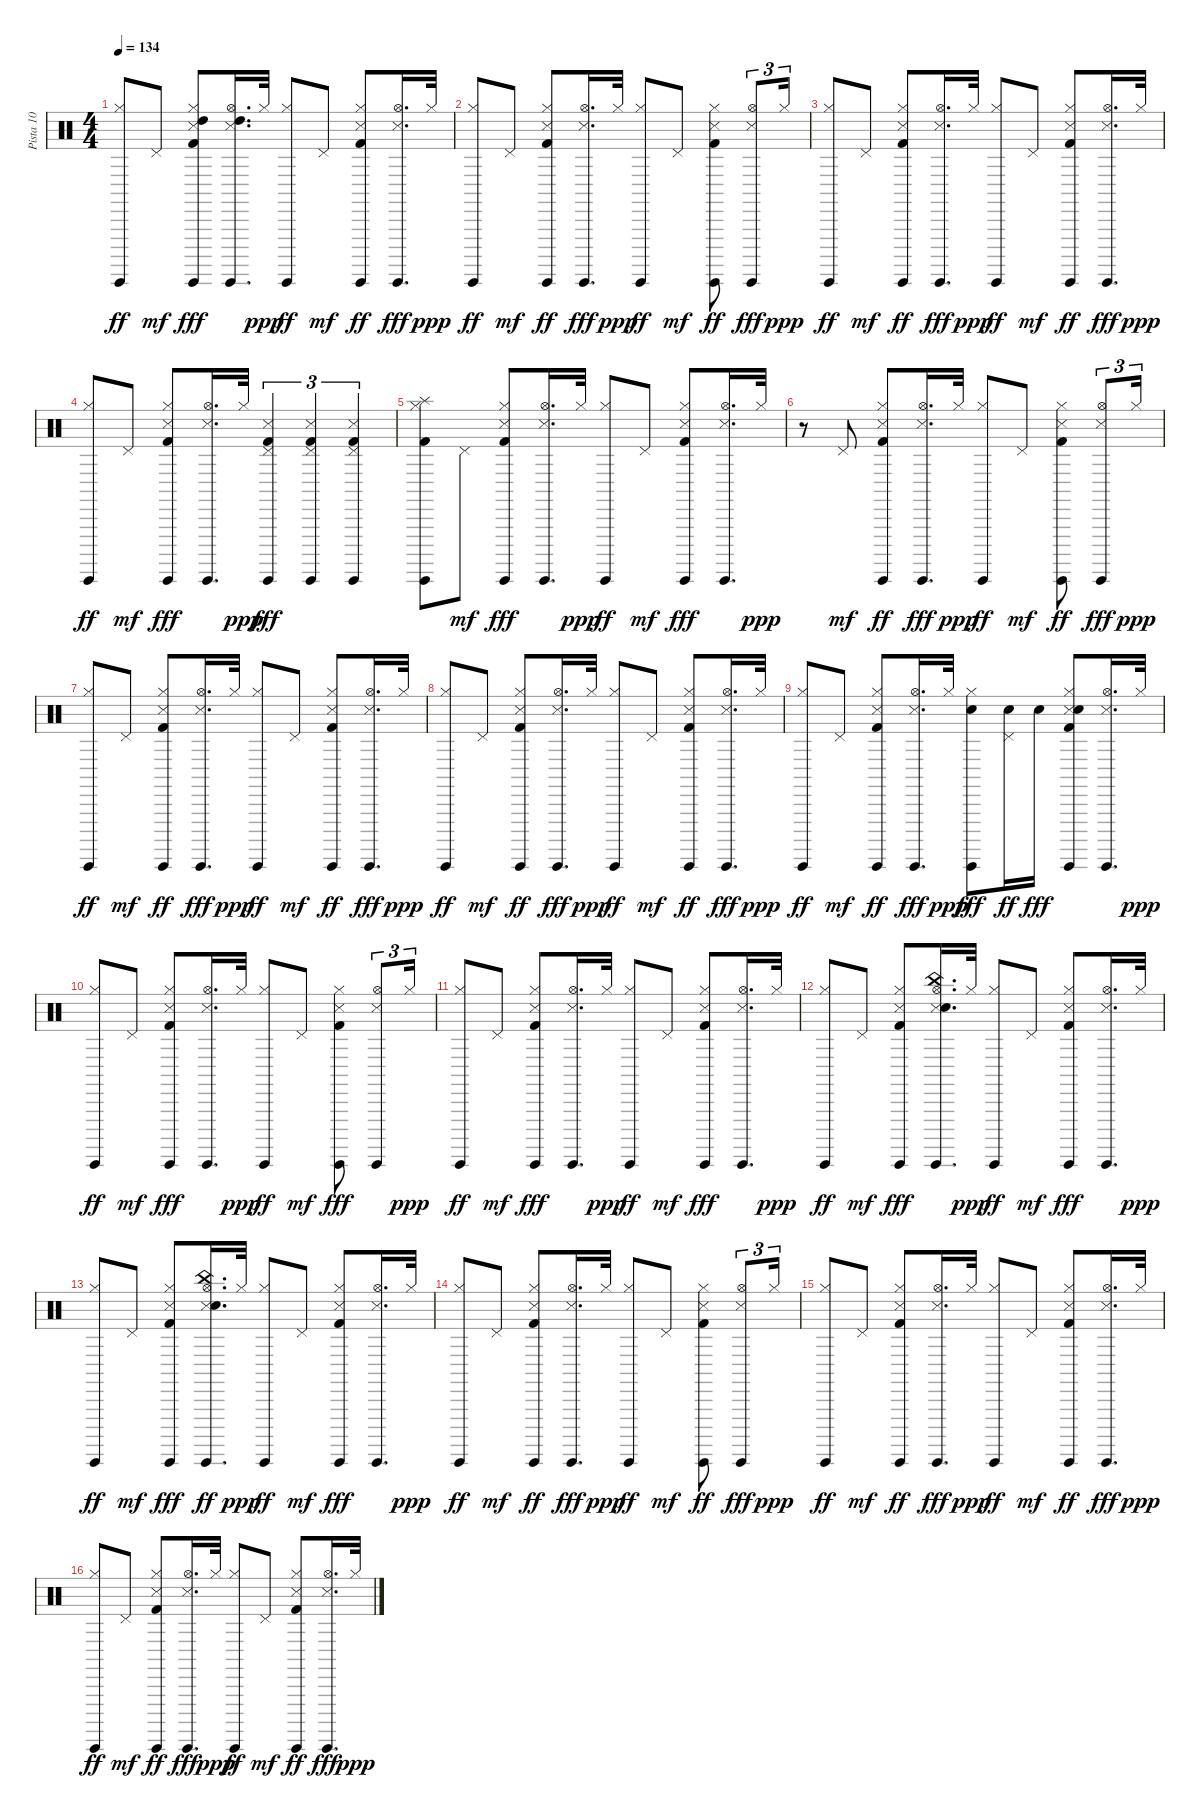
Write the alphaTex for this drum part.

\track ("Pista 10" "Pista 10") {instrument percussion}
\staff {score}
\articulation defaults
\ts (4 4)
\tempo 134
\clef neutral
\ks c
("Hi-Hat (closed)" "Guiro (hit)").8{dy ff} "Pedal Hi-Hat (hit)".8{dy mf} ("Hi-Hat (closed)" "Guiro (hit)" "Snare (side stick) 3" "Kick (hit) 2" "High Tom (hit)").8{dy fff} ("Hi-Hat (open)" "Guiro (hit)" "Snare (side stick) 3" "High Tom (hit)").16{d} "Hi-Hat (closed)".32{dy ppp} ("Hi-Hat (closed)" "Guiro (hit)").8{dy ff} "Pedal Hi-Hat (hit)".8{dy mf} ("Hi-Hat (closed)" "Guiro (hit)" "Snare (side stick) 3" "Kick (hit) 2").8{dy ff} ("Hi-Hat (open)" "Guiro (hit)" "Snare (side stick) 3").16{d dy fff} "Hi-Hat (closed)".32{dy ppp} |
("Guiro (hit)" "Hi-Hat (closed)").8{dy ff} "Pedal Hi-Hat (hit)".8{dy mf} ("Guiro (hit)" "Hi-Hat (closed)" "Snare (side stick) 3" "Kick (hit) 2").8{dy ff} ("Guiro (hit)" "Hi-Hat (open)" "Snare (side stick) 3").16{d dy fff} "Hi-Hat (closed)".32{dy ppp} ("Guiro (hit)" "Hi-Hat (closed)").8{dy ff} "Pedal Hi-Hat (hit)".8{dy mf} ("Guiro (hit)" "Hi-Hat (closed)" "Snare (side stick) 3" "Kick (hit) 2").8{dy ff} ("Guiro (hit)" "Hi-Hat (open)" "Snare (side stick) 3").8{tu (3 2) dy fff} "Hi-Hat (closed)".16{tu (3 2) dy ppp} |
("Guiro (hit)" "Hi-Hat (closed)").8{dy ff} "Pedal Hi-Hat (hit)".8{dy mf} ("Guiro (hit)" "Hi-Hat (closed)" "Snare (side stick) 3" "Kick (hit) 2").8{dy ff} ("Guiro (hit)" "Hi-Hat (open)" "Snare (side stick) 3").16{d dy fff} "Hi-Hat (closed)".32{dy ppp} ("Guiro (hit)" "Hi-Hat (closed)").8{dy ff} "Pedal Hi-Hat (hit)".8{dy mf} ("Guiro (hit)" "Hi-Hat (closed)" "Snare (side stick) 3" "Kick (hit) 2").8{dy ff} ("Guiro (hit)" "Hi-Hat (open)" "Snare (side stick) 3").16{d dy fff} "Hi-Hat (closed)".32{dy ppp} |
("Guiro (hit)" "Hi-Hat (closed)").8{dy ff} "Pedal Hi-Hat (hit)".8{dy mf} ("Guiro (hit)" "Hi-Hat (closed)" "Kick (hit) 2" "Snare (side stick) 3").8{dy fff} ("Guiro (hit)" "Hi-Hat (open)" "Snare (side stick) 3").16{d} "Hi-Hat (closed)".32{dy ppp} ("Pedal Hi-Hat (hit)" "Guiro (hit)" "Snare (side stick) 3" "Kick (hit) 2").4{tu (3 2) dy fff} ("Pedal Hi-Hat (hit)" "Guiro (hit)" "Snare (side stick) 3" "Kick (hit) 2").4{tu (3 2)} ("Pedal Hi-Hat (hit)" "Guiro (hit)" "Snare (side stick) 3" "Kick (hit) 2").4{tu (3 2)} |
("Guiro (hit)" "Hi-Hat (closed)" "Splash (hit)" "Kick (hit) 2").8 "Pedal Hi-Hat (hit)".8{dy mf} ("Guiro (hit)" "Hi-Hat (closed)" "Kick (hit) 2" "Snare (side stick) 3").8{dy fff} ("Guiro (hit)" "Hi-Hat (open)" "Snare (side stick) 3").16{d} "Hi-Hat (closed)".32{dy ppp} ("Guiro (hit)" "Hi-Hat (closed)").8{dy ff} "Pedal Hi-Hat (hit)".8{dy mf} ("Guiro (hit)" "Hi-Hat (closed)" "Kick (hit) 2" "Snare (side stick) 3").8{dy fff} ("Guiro (hit)" "Hi-Hat (open)" "Snare (side stick) 3").16{d} "Hi-Hat (closed)".32{dy ppp} |
r.8 "Pedal Hi-Hat (hit)".8{dy mf} ("Hi-Hat (closed)" "Guiro (hit)" "Snare (side stick) 3" "Kick (hit) 2").8{dy ff} ("Hi-Hat (open)" "Guiro (hit)" "Snare (side stick) 3").16{d dy fff} "Hi-Hat (closed)".32{dy ppp} ("Hi-Hat (closed)" "Guiro (hit)").8{dy ff} "Pedal Hi-Hat (hit)".8{dy mf} ("Hi-Hat (closed)" "Guiro (hit)" "Snare (side stick) 3" "Kick (hit) 2").8{dy ff} ("Hi-Hat (open)" "Guiro (hit)" "Snare (side stick) 3").8{tu (3 2) dy fff} "Hi-Hat (closed)".16{tu (3 2) dy ppp} |
("Hi-Hat (closed)" "Guiro (hit)").8{dy ff} "Pedal Hi-Hat (hit)".8{dy mf} ("Hi-Hat (closed)" "Guiro (hit)" "Snare (side stick) 3" "Kick (hit) 2").8{dy ff} ("Hi-Hat (open)" "Guiro (hit)" "Snare (side stick) 3").16{d dy fff} "Hi-Hat (closed)".32{dy ppp} ("Hi-Hat (closed)" "Guiro (hit)").8{dy ff} "Pedal Hi-Hat (hit)".8{dy mf} ("Hi-Hat (closed)" "Guiro (hit)" "Snare (side stick) 3" "Kick (hit) 2").8{dy ff} ("Hi-Hat (open)" "Guiro (hit)" "Snare (side stick) 3").16{d dy fff} "Hi-Hat (closed)".32{dy ppp} |
("Hi-Hat (closed)" "Guiro (hit)").8{dy ff} "Pedal Hi-Hat (hit)".8{dy mf} ("Hi-Hat (closed)" "Guiro (hit)" "Snare (side stick) 3" "Kick (hit) 2").8{dy ff} ("Hi-Hat (open)" "Guiro (hit)" "Snare (side stick) 3").16{d dy fff} "Hi-Hat (closed)".32{dy ppp} ("Hi-Hat (closed)" "Guiro (hit)").8{dy ff} "Pedal Hi-Hat (hit)".8{dy mf} ("Hi-Hat (closed)" "Guiro (hit)" "Snare (side stick) 3" "Kick (hit) 2").8{dy ff} ("Hi-Hat (open)" "Guiro (hit)" "Snare (side stick) 3").16{d dy fff} "Hi-Hat (closed)".32{dy ppp} |
("Hi-Hat (closed)" "Guiro (hit)").8{dy ff} "Pedal Hi-Hat (hit)".8{dy mf} ("Hi-Hat (closed)" "Guiro (hit)" "Snare (side stick) 3" "Kick (hit) 2").8{dy ff} ("Hi-Hat (open)" "Guiro (hit)" "Snare (side stick) 3").16{d dy fff} "Hi-Hat (closed)".32{dy ppp} ("Hi-Hat (closed)" "Guiro (hit)" "Snare (hit) 2").8{dy fff} ("Pedal Hi-Hat (hit)" "Electric Snare (hit)").16{dy ff} "Electric Snare (hit)".16{dy fff} ("Hi-Hat (closed)" "Guiro (hit)" "Snare (side stick) 3" "Kick (hit) 2" "Snare (hit) 2").8 ("Hi-Hat (open)" "Guiro (hit)" "Snare (side stick) 3").16{d} "Hi-Hat (closed)".32{dy ppp} |
("Hi-Hat (closed)" "Guiro (hit)").8{dy ff} "Pedal Hi-Hat (hit)".8{dy mf} ("Hi-Hat (closed)" "Guiro (hit)" "Kick (hit) 2" "Snare (side stick) 3").8{dy fff} ("Hi-Hat (open)" "Guiro (hit)" "Snare (side stick) 3").16{d} "Hi-Hat (closed)".32{dy ppp} ("Hi-Hat (closed)" "Guiro (hit)").8{dy ff} "Pedal Hi-Hat (hit)".8{dy mf} ("Hi-Hat (closed)" "Guiro (hit)" "Kick (hit) 2" "Snare (side stick) 3").8{dy fff} ("Hi-Hat (open)" "Guiro (hit)" "Snare (side stick) 3").8{tu (3 2)} "Hi-Hat (closed)".16{tu (3 2) dy ppp} |
("Hi-Hat (closed)" "Guiro (hit)").8{dy ff} "Pedal Hi-Hat (hit)".8{dy mf} ("Hi-Hat (closed)" "Guiro (hit)" "Kick (hit) 2" "Snare (side stick) 3").8{dy fff} ("Hi-Hat (open)" "Guiro (hit)" "Snare (side stick) 3").16{d} "Hi-Hat (closed)".32{dy ppp} ("Hi-Hat (closed)" "Guiro (hit)").8{dy ff} "Pedal Hi-Hat (hit)".8{dy mf} ("Hi-Hat (closed)" "Guiro (hit)" "Kick (hit) 2" "Snare (side stick) 3").8{dy fff} ("Hi-Hat (open)" "Guiro (hit)" "Snare (side stick) 3").16{d} "Hi-Hat (closed)".32{dy ppp} |
("Hi-Hat (closed)" "Guiro (hit)").8{dy ff} "Pedal Hi-Hat (hit)".8{dy mf} ("Hi-Hat (closed)" "Guiro (hit)" "Kick (hit) 2" "Snare (side stick) 3").8{dy fff} ("Hi-Hat (open)" "Guiro (hit)" "Snare (side stick) 3" "Electric Snare (hit)" "China (hit)").16{d} "Hi-Hat (closed)".32{dy ppp} ("Hi-Hat (closed)" "Guiro (hit)").8{dy ff} "Pedal Hi-Hat (hit)".8{dy mf} ("Hi-Hat (closed)" "Guiro (hit)" "Kick (hit) 2" "Snare (side stick) 3").8{dy fff} ("Hi-Hat (open)" "Guiro (hit)" "Snare (side stick) 3").16{d} "Hi-Hat (closed)".32{dy ppp} |
("Hi-Hat (closed)" "Guiro (hit)").8{dy ff} "Pedal Hi-Hat (hit)".8{dy mf} ("Hi-Hat (closed)" "Guiro (hit)" "Kick (hit) 2" "Snare (side stick) 3").8{dy fff} ("Hi-Hat (open)" "Guiro (hit)" "Snare (side stick) 3" "China (hit)" "Electric Snare (hit)").16{d dy ff} "Hi-Hat (closed)".32{dy ppp} ("Hi-Hat (closed)" "Guiro (hit)").8{dy ff} "Pedal Hi-Hat (hit)".8{dy mf} ("Hi-Hat (closed)" "Guiro (hit)" "Kick (hit) 2" "Snare (side stick) 3").8{dy fff} ("Hi-Hat (open)" "Guiro (hit)" "Snare (side stick) 3").16{d} "Hi-Hat (closed)".32{dy ppp} |
("Hi-Hat (closed)" "Guiro (hit)").8{dy ff} "Pedal Hi-Hat (hit)".8{dy mf} ("Hi-Hat (closed)" "Guiro (hit)" "Snare (side stick) 3" "Kick (hit) 2").8{dy ff} ("Hi-Hat (open)" "Guiro (hit)" "Snare (side stick) 3").16{d dy fff} "Hi-Hat (closed)".32{dy ppp} ("Hi-Hat (closed)" "Guiro (hit)").8{dy ff} "Pedal Hi-Hat (hit)".8{dy mf} ("Hi-Hat (closed)" "Guiro (hit)" "Snare (side stick) 3" "Kick (hit) 2").8{dy ff} ("Hi-Hat (open)" "Guiro (hit)" "Snare (side stick) 3").8{tu (3 2) dy fff} "Hi-Hat (closed)".16{tu (3 2) dy ppp} |
("Hi-Hat (closed)" "Guiro (hit)").8{dy ff} "Pedal Hi-Hat (hit)".8{dy mf} ("Hi-Hat (closed)" "Guiro (hit)" "Snare (side stick) 3" "Kick (hit) 2").8{dy ff} ("Hi-Hat (open)" "Guiro (hit)" "Snare (side stick) 3").16{d dy fff} "Hi-Hat (closed)".32{dy ppp} ("Hi-Hat (closed)" "Guiro (hit)").8{dy ff} "Pedal Hi-Hat (hit)".8{dy mf} ("Hi-Hat (closed)" "Guiro (hit)" "Snare (side stick) 3" "Kick (hit) 2").8{dy ff} ("Hi-Hat (open)" "Guiro (hit)" "Snare (side stick) 3").16{d dy fff} "Hi-Hat (closed)".32{dy ppp} |
("Hi-Hat (closed)" "Guiro (hit)").8{dy ff} "Pedal Hi-Hat (hit)".8{dy mf} ("Hi-Hat (closed)" "Guiro (hit)" "Snare (side stick) 3" "Kick (hit) 2").8{dy ff} ("Hi-Hat (open)" "Guiro (hit)" "Snare (side stick) 3").16{d dy fff} "Hi-Hat (closed)".32{dy ppp} ("Hi-Hat (closed)" "Guiro (hit)").8{dy ff} "Pedal Hi-Hat (hit)".8{dy mf} ("Hi-Hat (closed)" "Guiro (hit)" "Snare (side stick) 3" "Kick (hit) 2").8{dy ff} ("Hi-Hat (open)" "Guiro (hit)" "Snare (side stick) 3").16{d dy fff} "Hi-Hat (closed)".32{dy ppp}
